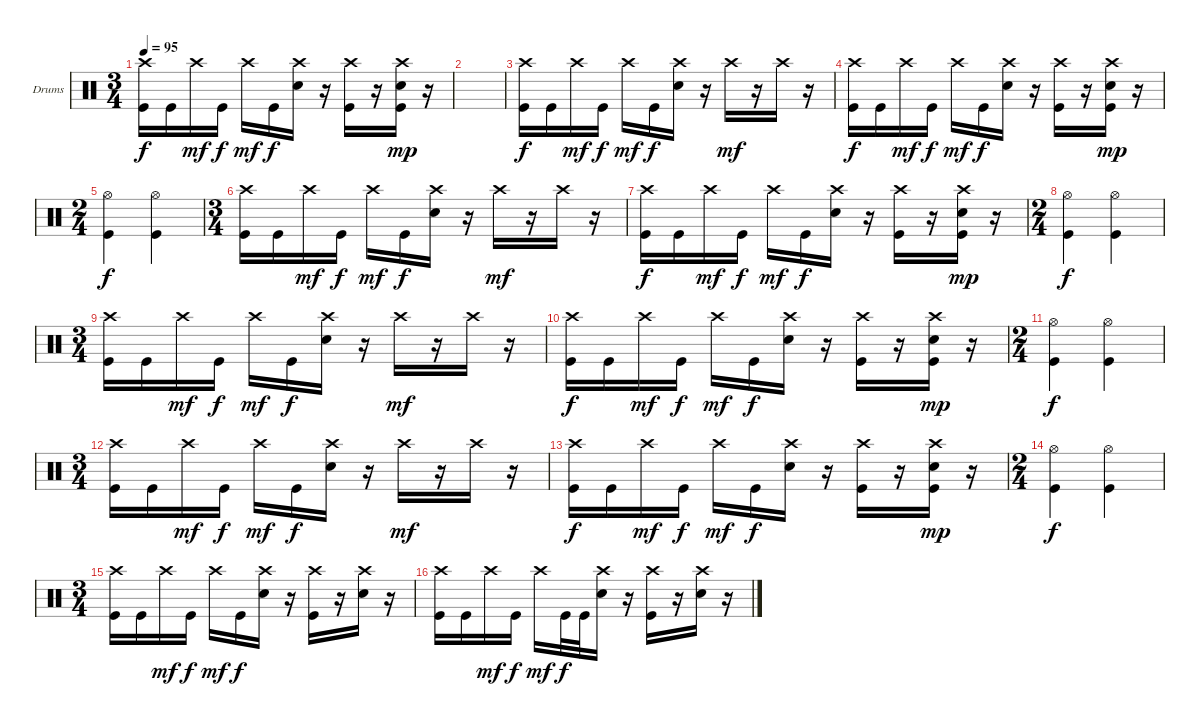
\defaultSystemsLayout 4
\bracketExtendMode groupsimilarinstruments
\firstSystemTrackNameOrientation horizontal
\otherSystemsTrackNameOrientation horizontal
\track ("Drumkit" "Drums") {instrument percussion}
\staff {score}
\articulation defaults
\ts (3 4)
\tempo 95
\clef neutral
\ks c
("Kick (hit)" "Crash high (hit)").16{dy f} "Kick (hit)".16 "Crash high (hit)".16{dy mf} "Kick (hit)".16{dy f} "Crash high (hit)".16{dy mf} "Kick (hit)".16{dy f} ("Snare (hit) 2" "Crash high (hit)").16 r.16 ("Kick (hit)" "Crash high (hit)").16 r.16 ("Kick (hit)" "Snare (hit) 2" "Crash high (hit)").16{dy mp} r.16 |
|
("Kick (hit)" "Crash high (hit)").16{dy f} "Kick (hit)".16 "Crash high (hit)".16{dy mf} "Kick (hit)".16{dy f} "Crash high (hit)".16{dy mf} "Kick (hit)".16{dy f} ("Snare (hit) 2" "Crash high (hit)").16 r.16 "Crash high (hit)".16{dy mf} r.16 "Crash high (hit)".16 r.16 |
("Kick (hit)" "Crash high (hit)").16{dy f} "Kick (hit)".16 "Crash high (hit)".16{dy mf} "Kick (hit)".16{dy f} "Crash high (hit)".16{dy mf} "Kick (hit)".16{dy f} ("Snare (hit) 2" "Crash high (hit)").16 r.16 ("Kick (hit)" "Crash high (hit)").16 r.16 ("Kick (hit)" "Snare (hit) 2" "Crash high (hit)").16{dy mp} r.16 |
\ts (2 4)
("Kick (hit)" "Hi-Hat (open)").4{dy f} ("Kick (hit)" "Hi-Hat (open)").4 |
\ts (3 4)
("Kick (hit)" "Crash high (hit)").16 "Kick (hit)".16 "Crash high (hit)".16{dy mf} "Kick (hit)".16{dy f} "Crash high (hit)".16{dy mf} "Kick (hit)".16{dy f} ("Snare (hit) 2" "Crash high (hit)").16 r.16 "Crash high (hit)".16{dy mf} r.16 "Crash high (hit)".16 r.16 |
("Kick (hit)" "Crash high (hit)").16{dy f} "Kick (hit)".16 "Crash high (hit)".16{dy mf} "Kick (hit)".16{dy f} "Crash high (hit)".16{dy mf} "Kick (hit)".16{dy f} ("Snare (hit) 2" "Crash high (hit)").16 r.16 ("Kick (hit)" "Crash high (hit)").16 r.16 ("Kick (hit)" "Snare (hit) 2" "Crash high (hit)").16{dy mp} r.16 |
\ts (2 4)
("Kick (hit)" "Hi-Hat (open)").4{dy f} ("Kick (hit)" "Hi-Hat (open)").4 |
\ts (3 4)
("Kick (hit)" "Crash high (hit)").16 "Kick (hit)".16 "Crash high (hit)".16{dy mf} "Kick (hit)".16{dy f} "Crash high (hit)".16{dy mf} "Kick (hit)".16{dy f} ("Snare (hit) 2" "Crash high (hit)").16 r.16 "Crash high (hit)".16{dy mf} r.16 "Crash high (hit)".16 r.16 |
("Kick (hit)" "Crash high (hit)").16{dy f} "Kick (hit)".16 "Crash high (hit)".16{dy mf} "Kick (hit)".16{dy f} "Crash high (hit)".16{dy mf} "Kick (hit)".16{dy f} ("Snare (hit) 2" "Crash high (hit)").16 r.16 ("Kick (hit)" "Crash high (hit)").16 r.16 ("Kick (hit)" "Snare (hit) 2" "Crash high (hit)").16{dy mp} r.16 |
\ts (2 4)
("Kick (hit)" "Hi-Hat (open)").4{dy f} ("Kick (hit)" "Hi-Hat (open)").4 |
\ts (3 4)
("Kick (hit)" "Crash high (hit)").16 "Kick (hit)".16 "Crash high (hit)".16{dy mf} "Kick (hit)".16{dy f} "Crash high (hit)".16{dy mf} "Kick (hit)".16{dy f} ("Snare (hit) 2" "Crash high (hit)").16 r.16 "Crash high (hit)".16{dy mf} r.16 "Crash high (hit)".16 r.16 |
("Kick (hit)" "Crash high (hit)").16{dy f} "Kick (hit)".16 "Crash high (hit)".16{dy mf} "Kick (hit)".16{dy f} "Crash high (hit)".16{dy mf} "Kick (hit)".16{dy f} ("Snare (hit) 2" "Crash high (hit)").16 r.16 ("Kick (hit)" "Crash high (hit)").16 r.16 ("Kick (hit)" "Snare (hit) 2" "Crash high (hit)").16{dy mp} r.16 |
\ts (2 4)
("Kick (hit)" "Hi-Hat (open)").4{dy f} ("Kick (hit)" "Hi-Hat (open)").4 |
\ts (3 4)
("Kick (hit)" "Crash high (hit)").16 "Kick (hit)".16 "Crash high (hit)".16{dy mf} "Kick (hit)".16{dy f} "Crash high (hit)".16{dy mf} "Kick (hit)".16{dy f} ("Snare (hit) 2" "Crash high (hit)").16 r.16 ("Kick (hit)" "Crash high (hit)").16 r.16 ("Snare (hit) 2" "Crash high (hit)").16 r.16 |
("Kick (hit)" "Crash high (hit)").16 "Kick (hit)".16 "Crash high (hit)".16{dy mf} "Kick (hit)".16{dy f} "Crash high (hit)".16{dy mf} "Kick (hit)".32{dy f} "Kick (hit)".32 ("Snare (hit) 2" "Crash high (hit)").16 r.16 ("Kick (hit)" "Crash high (hit)").16 r.16 ("Snare (hit) 2" "Crash high (hit)").16 r.16
